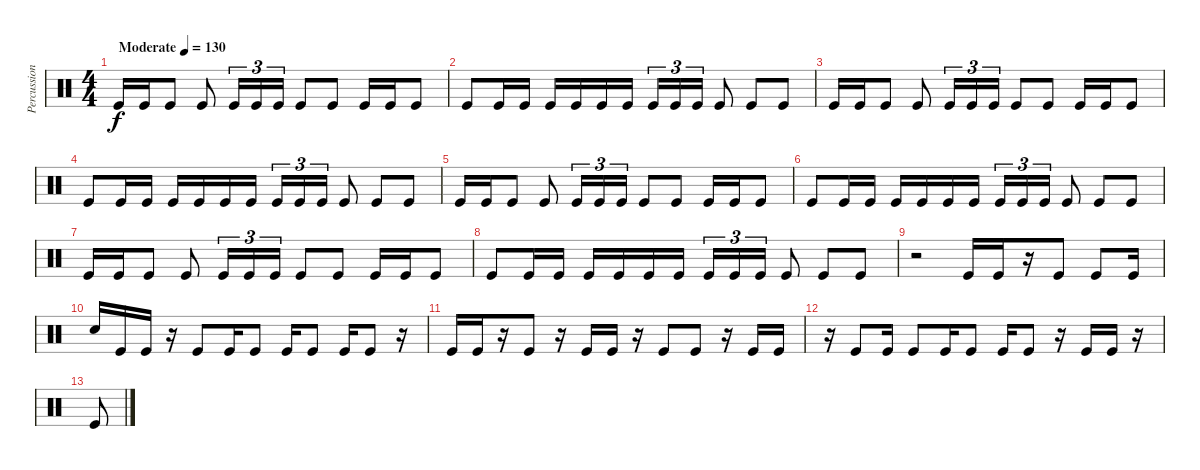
\track ("Percussion" "Percussion") {instrument percussion}
\staff {score}
\articulation defaults
\ts (4 4)
\tempo (130 "Moderate")
\clef neutral
\ks c "Kick (hit)".16{dy f} "Kick (hit)".16 "Kick (hit)".8 "Kick (hit)".8 "Kick (hit)".16{tu (3 2)} "Kick (hit)".16{tu (3 2)} "Kick (hit)".16{tu (3 2)} "Kick (hit)".8 "Kick (hit)".8 "Kick (hit)".16 "Kick (hit)".16 "Kick (hit)".8
|
"Kick (hit)".8 "Kick (hit)".16 "Kick (hit)".16 "Kick (hit)".16 "Kick (hit)".16 "Kick (hit)".16 "Kick (hit)".16 "Kick (hit)".16{tu (3 2)} "Kick (hit)".16{tu (3 2)} "Kick (hit)".16{tu (3 2)} "Kick (hit)".8 "Kick (hit)".8 "Kick (hit)".8 |
"Kick (hit)".16 "Kick (hit)".16 "Kick (hit)".8 "Kick (hit)".8 "Kick (hit)".16{tu (3 2)} "Kick (hit)".16{tu (3 2)} "Kick (hit)".16{tu (3 2)} "Kick (hit)".8 "Kick (hit)".8 "Kick (hit)".16 "Kick (hit)".16 "Kick (hit)".8 |
"Kick (hit)".8 "Kick (hit)".16 "Kick (hit)".16 "Kick (hit)".16 "Kick (hit)".16 "Kick (hit)".16 "Kick (hit)".16 "Kick (hit)".16{tu (3 2)} "Kick (hit)".16{tu (3 2)} "Kick (hit)".16{tu (3 2)} "Kick (hit)".8 "Kick (hit)".8 "Kick (hit)".8 |
"Kick (hit)".16 "Kick (hit)".16 "Kick (hit)".8 "Kick (hit)".8 "Kick (hit)".16{tu (3 2)} "Kick (hit)".16{tu (3 2)} "Kick (hit)".16{tu (3 2)} "Kick (hit)".8 "Kick (hit)".8 "Kick (hit)".16 "Kick (hit)".16 "Kick (hit)".8 |
"Kick (hit)".8 "Kick (hit)".16 "Kick (hit)".16 "Kick (hit)".16 "Kick (hit)".16 "Kick (hit)".16 "Kick (hit)".16 "Kick (hit)".16{tu (3 2)} "Kick (hit)".16{tu (3 2)} "Kick (hit)".16{tu (3 2)} "Kick (hit)".8 "Kick (hit)".8 "Kick (hit)".8 |
"Kick (hit)".16 "Kick (hit)".16 "Kick (hit)".8 "Kick (hit)".8 "Kick (hit)".16{tu (3 2)} "Kick (hit)".16{tu (3 2)} "Kick (hit)".16{tu (3 2)} "Kick (hit)".8 "Kick (hit)".8 "Kick (hit)".16 "Kick (hit)".16 "Kick (hit)".8 |
"Kick (hit)".8 "Kick (hit)".16 "Kick (hit)".16 "Kick (hit)".16 "Kick (hit)".16 "Kick (hit)".16 "Kick (hit)".16 "Kick (hit)".16{tu (3 2)} "Kick (hit)".16{tu (3 2)} "Kick (hit)".16{tu (3 2)} "Kick (hit)".8 "Kick (hit)".8 "Kick (hit)".8 |
r.2 "Kick (hit)".16 "Kick (hit)".16 r.16 "Kick (hit)".8 "Kick (hit)".8 "Kick (hit)".16 |
"Electric Snare (hit)".16 "Kick (hit)".16 "Kick (hit)".16 r.16 "Kick (hit)".8 "Kick (hit)".16 "Kick (hit)".8 "Kick (hit)".16 "Kick (hit)".8 "Kick (hit)".16 "Kick (hit)".8 r.16 |
"Kick (hit)".16 "Kick (hit)".16 r.16 "Kick (hit)".8 r.16 "Kick (hit)".16 "Kick (hit)".16 r.16 "Kick (hit)".8 "Kick (hit)".8 r.16 "Kick (hit)".16 "Kick (hit)".16 |
r.16 "Kick (hit)".8 "Kick (hit)".16 "Kick (hit)".8 "Kick (hit)".16 "Kick (hit)".8 "Kick (hit)".16 "Kick (hit)".8 r.16 "Kick (hit)".16 "Kick (hit)".16 r.16 |
"Kick (hit)".8
